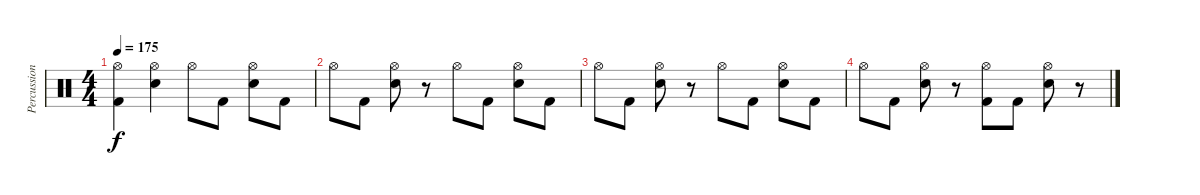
\track ("Percussion" "Percussion") {instrument percussion}
\staff {score}
\articulation defaults
\ts (4 4)
\tempo 175
\clef neutral
\ks c
("Hi-Hat (open)" "Kick (hit) 2").4{dy f} ("Hi-Hat (open)" "Electric Snare (hit)").4 "Hi-Hat (open)".8 "Kick (hit) 2".8 ("Hi-Hat (open)" "Electric Snare (hit)").8 "Kick (hit) 2".8 |
"Hi-Hat (open)".8 "Kick (hit) 2".8 ("Hi-Hat (open)" "Electric Snare (hit)").8 r.8 "Hi-Hat (open)".8 "Kick (hit) 2".8 ("Hi-Hat (open)" "Electric Snare (hit)").8 "Kick (hit) 2".8 |
"Hi-Hat (open)".8 "Kick (hit) 2".8 ("Hi-Hat (open)" "Electric Snare (hit)").8 r.8 "Hi-Hat (open)".8 "Kick (hit) 2".8 ("Hi-Hat (open)" "Electric Snare (hit)").8 "Kick (hit) 2".8 |
"Hi-Hat (open)".8 "Kick (hit) 2".8 ("Hi-Hat (open)" "Electric Snare (hit)").8 r.8 ("Hi-Hat (open)" "Kick (hit) 2").8 "Kick (hit) 2".8 ("Hi-Hat (open)" "Electric Snare (hit)").8 r.8
